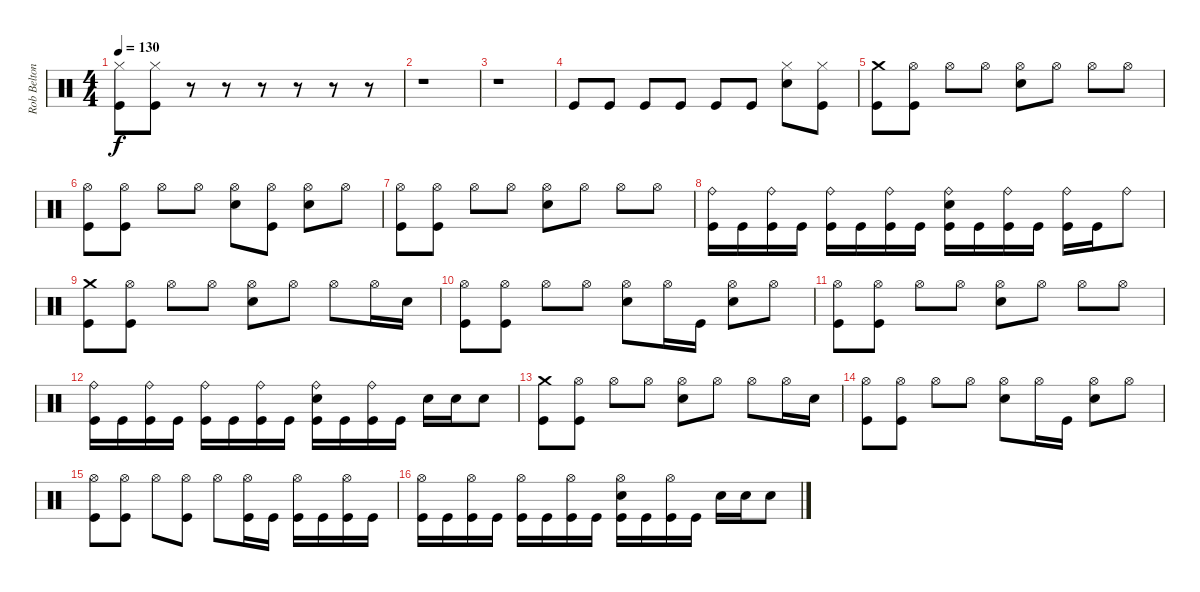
\track ("Rob Belton" "Rob Belton") {instrument percussion}
\staff {score}
\articulation defaults
\ts (4 4)
\tempo 130
\clef neutral
\ks c
("Kick (hit)" "Hi-Hat (closed)").8{dy f} ("Kick (hit)" "Hi-Hat (closed)").8 r.8 r.8 r.8 r.8 r.8 r.8 |
r.1 |
r.1 |
"Kick (hit)".8 "Kick (hit)".8 "Kick (hit)".8 "Kick (hit)".8 "Kick (hit)".8 "Kick (hit)".8 ("Snare (hit) 2" "Hi-Hat (closed)").8 ("Kick (hit)" "Hi-Hat (closed)").8 |
("Crash medium (hit)" "Kick (hit)").8 ("Hi-Hat (open)" "Kick (hit)").8 "Hi-Hat (open)".8 "Hi-Hat (open)".8 ("Hi-Hat (open)" "Snare (hit) 2").8 "Hi-Hat (open)".8 "Hi-Hat (open)".8 "Hi-Hat (open)".8 |
("Hi-Hat (open)" "Kick (hit)").8 ("Hi-Hat (open)" "Kick (hit)").8 "Hi-Hat (open)".8 "Hi-Hat (open)".8 ("Hi-Hat (open)" "Snare (hit) 2").8 ("Hi-Hat (open)" "Kick (hit)").8 ("Hi-Hat (open)" "Snare (hit) 2").8 "Hi-Hat (open)".8 |
("Hi-Hat (open)" "Kick (hit)").8 ("Hi-Hat (open)" "Kick (hit)").8 "Hi-Hat (open)".8 "Hi-Hat (open)".8 ("Hi-Hat (open)" "Snare (hit) 2").8 "Hi-Hat (open)".8 "Hi-Hat (open)".8 "Hi-Hat (open)".8 |
("Ride (bell)" "Kick (hit)").16 "Kick (hit)".16 ("Kick (hit)" "Ride (bell)").16 "Kick (hit)".16 ("Kick (hit)" "Ride (bell)").16 "Kick (hit)".16 ("Kick (hit)" "Ride (bell)").16 "Kick (hit)".16 ("Kick (hit)" "Ride (bell)" "Snare (hit) 2").16 "Kick (hit)".16 ("Kick (hit)" "Ride (bell)").16 "Kick (hit)".16 ("Kick (hit)" "Ride (bell)").16 "Kick (hit)".16 "Ride (bell)".8 |
("Crash medium (hit)" "Kick (hit)").8 ("Hi-Hat (open)" "Kick (hit)").8 "Hi-Hat (open)".8 "Hi-Hat (open)".8 ("Hi-Hat (open)" "Snare (hit) 2").8 "Hi-Hat (open)".8 "Hi-Hat (open)".8 "Hi-Hat (open)".16 "Snare (hit) 2".16 |
("Hi-Hat (open)" "Kick (hit)").8 ("Hi-Hat (open)" "Kick (hit)").8 "Hi-Hat (open)".8 "Hi-Hat (open)".8 ("Hi-Hat (open)" "Snare (hit) 2").8 "Hi-Hat (open)".16 "Kick (hit)".16 ("Hi-Hat (open)" "Snare (hit) 2").8 "Hi-Hat (open)".8 |
("Hi-Hat (open)" "Kick (hit)").8 ("Hi-Hat (open)" "Kick (hit)").8 "Hi-Hat (open)".8 "Hi-Hat (open)".8 ("Hi-Hat (open)" "Snare (hit) 2").8 "Hi-Hat (open)".8 "Hi-Hat (open)".8 "Hi-Hat (open)".8 |
("Ride (bell)" "Kick (hit)").16 "Kick (hit)".16 ("Kick (hit)" "Ride (bell)").16 "Kick (hit)".16 ("Kick (hit)" "Ride (bell)").16 "Kick (hit)".16 ("Kick (hit)" "Ride (bell)").16 "Kick (hit)".16 ("Kick (hit)" "Ride (bell)" "Snare (hit) 2").16 "Kick (hit)".16 ("Kick (hit)" "Ride (bell)").16 "Kick (hit)".16 "Snare (hit) 2".16 "Snare (hit) 2".16 "Snare (hit) 2".8 |
("Crash medium (hit)" "Kick (hit)").8 ("Hi-Hat (open)" "Kick (hit)").8 "Hi-Hat (open)".8 "Hi-Hat (open)".8 ("Hi-Hat (open)" "Snare (hit) 2").8 "Hi-Hat (open)".8 "Hi-Hat (open)".8 "Hi-Hat (open)".16 "Snare (hit) 2".16 |
("Hi-Hat (open)" "Kick (hit)").8 ("Hi-Hat (open)" "Kick (hit)").8 "Hi-Hat (open)".8 "Hi-Hat (open)".8 ("Hi-Hat (open)" "Snare (hit) 2").8 "Hi-Hat (open)".16 "Kick (hit)".16 ("Hi-Hat (open)" "Snare (hit) 2").8 "Hi-Hat (open)".8 |
("Hi-Hat (open)" "Kick (hit)").8 ("Hi-Hat (open)" "Kick (hit)").8 "Hi-Hat (open)".8 ("Hi-Hat (open)" "Kick (hit)").8 "Hi-Hat (open)".8 ("Hi-Hat (open)" "Kick (hit)").16 "Kick (hit)".16 ("Hi-Hat (open)" "Kick (hit)").16 "Kick (hit)".16 ("Kick (hit)" "Hi-Hat (open)").16 "Kick (hit)".16 |
("Kick (hit)" "Hi-Hat (open)").16 "Kick (hit)".16 ("Kick (hit)" "Hi-Hat (open)").16 "Kick (hit)".16 ("Kick (hit)" "Hi-Hat (open)").16 "Kick (hit)".16 ("Kick (hit)" "Hi-Hat (open)").16 "Kick (hit)".16 ("Kick (hit)" "Snare (hit) 2" "Hi-Hat (open)").16 "Kick (hit)".16 ("Kick (hit)" "Hi-Hat (open)").16 "Kick (hit)".16 "Snare (hit) 2".16 "Snare (hit) 2".16 "Snare (hit) 2".8
